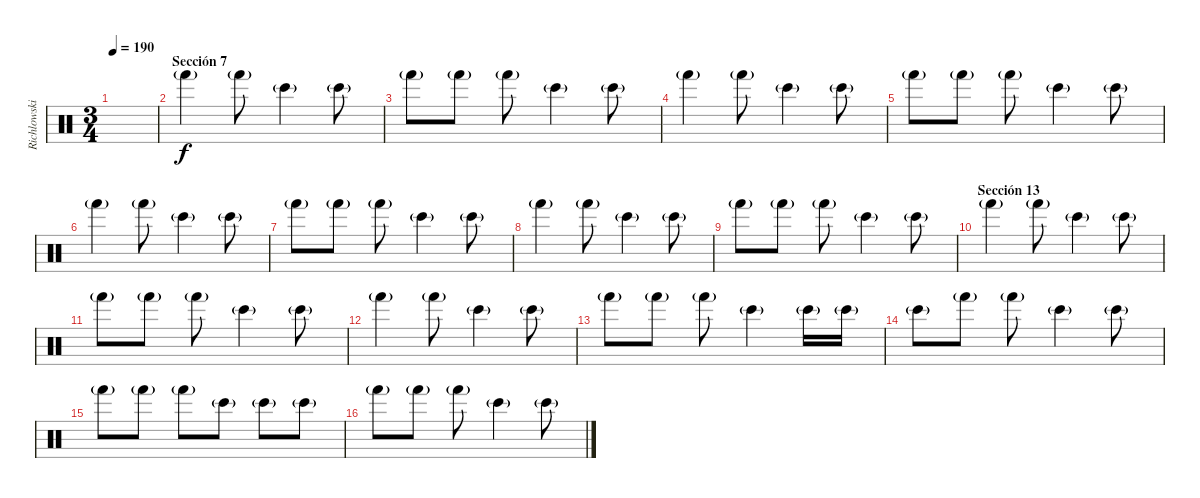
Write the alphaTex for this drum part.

\track ("Richlowski y Dj Raff" "Richlowski") {instrument percussion}
\staff {score}
\articulation defaults
\ts (3 4)
\tempo 190
\clef neutral
\ks c
|
\section ("" "Sección 7")
"Hand (hit)"{g}.4 "Hand (hit)"{g}.8 "Bongo High (hit)"{g}.4 "Bongo High (hit)"{g}.8 |
"Hand (hit)"{g}.8 "Hand (hit)"{g}.8 "Hand (hit)"{g}.8 "Bongo High (hit)"{g}.4 "Bongo High (hit)"{g}.8 |
"Hand (hit)"{g}.4 "Hand (hit)"{g}.8 "Bongo High (hit)"{g}.4 "Bongo High (hit)"{g}.8 |
"Hand (hit)"{g}.8 "Hand (hit)"{g}.8 "Hand (hit)"{g}.8 "Bongo High (hit)"{g}.4 "Bongo High (hit)"{g}.8 |
"Hand (hit)"{g}.4 "Hand (hit)"{g}.8 "Bongo High (hit)"{g}.4 "Bongo High (hit)"{g}.8 |
"Hand (hit)"{g}.8 "Hand (hit)"{g}.8 "Hand (hit)"{g}.8 "Bongo High (hit)"{g}.4 "Bongo High (hit)"{g}.8 |
"Hand (hit)"{g}.4 "Hand (hit)"{g}.8 "Bongo High (hit)"{g}.4 "Bongo High (hit)"{g}.8 |
"Hand (hit)"{g}.8 "Hand (hit)"{g}.8 "Hand (hit)"{g}.8 "Bongo High (hit)"{g}.4 "Bongo High (hit)"{g}.8 |
\section ("" "Sección 13")
"Hand (hit)"{g}.4 "Hand (hit)"{g}.8 "Bongo High (hit)"{g}.4 "Bongo High (hit)"{g}.8 |
"Hand (hit)"{g}.8 "Hand (hit)"{g}.8 "Hand (hit)"{g}.8 "Bongo High (hit)"{g}.4 "Bongo High (hit)"{g}.8 |
"Hand (hit)"{g}.4 "Hand (hit)"{g}.8 "Bongo High (hit)"{g}.4 "Bongo High (hit)"{g}.8 |
"Hand (hit)"{g}.8 "Hand (hit)"{g}.8 "Hand (hit)"{g}.8 "Bongo High (hit)"{g}.4 "Bongo High (hit)"{g}.16 "Bongo High (hit)"{g}.16 |
"Bongo High (hit)"{g}.8 "Hand (hit)"{g}.8 "Hand (hit)"{g}.8 "Bongo High (hit)"{g}.4 "Bongo High (hit)"{g}.8 |
"Hand (hit)"{g}.8 "Hand (hit)"{g}.8 "Hand (hit)"{g}.8 "Bongo High (hit)"{g}.8 "Bongo High (hit)"{g}.8 "Bongo High (hit)"{g}.8 |
"Hand (hit)"{g}.8 "Hand (hit)"{g}.8 "Hand (hit)"{g}.8 "Bongo High (hit)"{g}.4 "Bongo High (hit)"{g}.8
